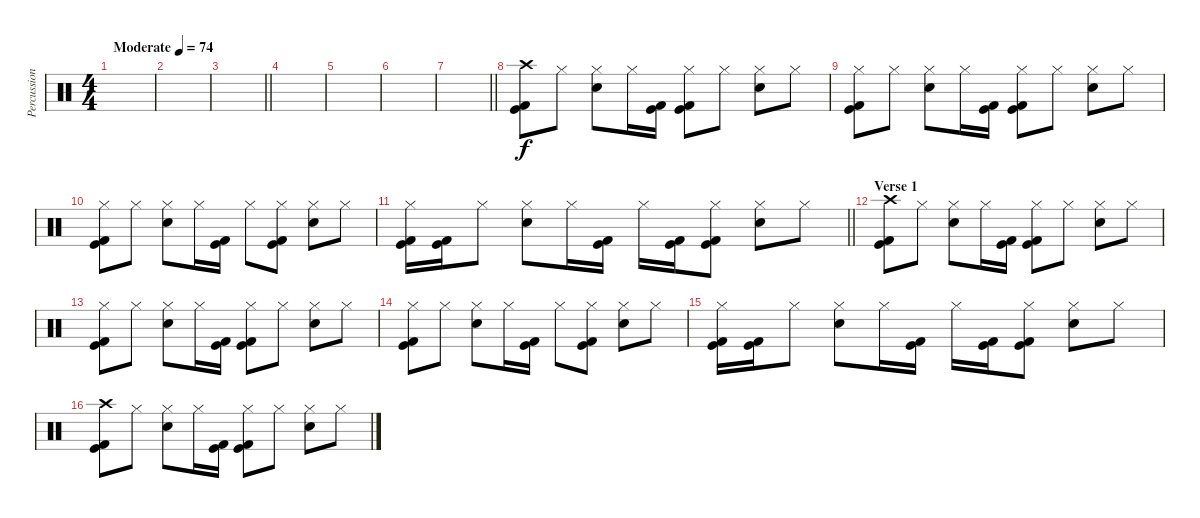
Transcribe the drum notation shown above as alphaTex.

\track ("Percussion" "Percussion") {instrument percussion}
\staff {score}
\articulation defaults
\ts (4 4)
\tempo (74 "Moderate")
\clef neutral
\ks c
|
|
\barLineRight lightlight
|
\section ("" "")
|
|
|
\barLineRight lightlight
|
\section ("" "")
("Crash high (hit)" "Kick (hit)" "Kick (hit) 2").8 "Hi-Hat (closed)".8 ("Hi-Hat (closed)" "Electric Snare (hit)").8 "Hi-Hat (closed)".16 ("Kick (hit)" "Kick (hit) 2").16 ("Hi-Hat (closed)" "Kick (hit)" "Kick (hit) 2").8 "Hi-Hat (closed)".8 ("Hi-Hat (closed)" "Electric Snare (hit)").8 "Hi-Hat (closed)".8 |
("Hi-Hat (closed)" "Kick (hit)" "Kick (hit) 2").8 "Hi-Hat (closed)".8 ("Hi-Hat (closed)" "Electric Snare (hit)").8 "Hi-Hat (closed)".16 ("Kick (hit)" "Kick (hit) 2").16 ("Hi-Hat (closed)" "Kick (hit)" "Kick (hit) 2").8 "Hi-Hat (closed)".8 ("Hi-Hat (closed)" "Electric Snare (hit)").8 "Hi-Hat (closed)".8 |
("Hi-Hat (closed)" "Kick (hit)" "Kick (hit) 2").8 "Hi-Hat (closed)".8 ("Hi-Hat (closed)" "Electric Snare (hit)").8 "Hi-Hat (closed)".16 ("Kick (hit)" "Kick (hit) 2").16 "Hi-Hat (closed)".8 ("Hi-Hat (closed)" "Kick (hit)" "Kick (hit) 2").8 ("Hi-Hat (closed)" "Electric Snare (hit)").8 "Hi-Hat (closed)".8 |
\barLineRight lightlight
("Hi-Hat (closed)" "Kick (hit)" "Kick (hit) 2").16 ("Kick (hit)" "Kick (hit) 2").16 "Hi-Hat (closed)".8 ("Hi-Hat (closed)" "Electric Snare (hit)").8 "Hi-Hat (closed)".16 ("Kick (hit)" "Kick (hit) 2").16 "Hi-Hat (closed)".16 ("Kick (hit)" "Kick (hit) 2").16 ("Hi-Hat (closed)" "Kick (hit)" "Kick (hit) 2").8 ("Hi-Hat (closed)" "Electric Snare (hit)").8 "Hi-Hat (closed)".8 |
\section ("" "Verse 1")
("Crash high (hit)" "Kick (hit)" "Kick (hit) 2").8 "Hi-Hat (closed)".8 ("Hi-Hat (closed)" "Electric Snare (hit)").8 "Hi-Hat (closed)".16 ("Kick (hit)" "Kick (hit) 2").16 ("Hi-Hat (closed)" "Kick (hit)" "Kick (hit) 2").8 "Hi-Hat (closed)".8 ("Hi-Hat (closed)" "Electric Snare (hit)").8 "Hi-Hat (closed)".8 |
("Hi-Hat (closed)" "Kick (hit)" "Kick (hit) 2").8 "Hi-Hat (closed)".8 ("Hi-Hat (closed)" "Electric Snare (hit)").8 "Hi-Hat (closed)".16 ("Kick (hit)" "Kick (hit) 2").16 ("Hi-Hat (closed)" "Kick (hit)" "Kick (hit) 2").8 "Hi-Hat (closed)".8 ("Hi-Hat (closed)" "Electric Snare (hit)").8 "Hi-Hat (closed)".8 |
("Hi-Hat (closed)" "Kick (hit)" "Kick (hit) 2").8 "Hi-Hat (closed)".8 ("Hi-Hat (closed)" "Electric Snare (hit)").8 "Hi-Hat (closed)".16 ("Kick (hit)" "Kick (hit) 2").16 "Hi-Hat (closed)".8 ("Hi-Hat (closed)" "Kick (hit)" "Kick (hit) 2").8 ("Hi-Hat (closed)" "Electric Snare (hit)").8 "Hi-Hat (closed)".8 |
("Hi-Hat (closed)" "Kick (hit)" "Kick (hit) 2").16 ("Kick (hit)" "Kick (hit) 2").16 "Hi-Hat (closed)".8 ("Hi-Hat (closed)" "Electric Snare (hit)").8 "Hi-Hat (closed)".16 ("Kick (hit)" "Kick (hit) 2").16 "Hi-Hat (closed)".16 ("Kick (hit)" "Kick (hit) 2").16 ("Hi-Hat (closed)" "Kick (hit)" "Kick (hit) 2").8 ("Hi-Hat (closed)" "Electric Snare (hit)").8 "Hi-Hat (closed)".8 |
("Crash high (hit)" "Kick (hit)" "Kick (hit) 2").8 "Hi-Hat (closed)".8 ("Hi-Hat (closed)" "Electric Snare (hit)").8 "Hi-Hat (closed)".16 ("Kick (hit)" "Kick (hit) 2").16 ("Hi-Hat (closed)" "Kick (hit)" "Kick (hit) 2").8 "Hi-Hat (closed)".8 ("Hi-Hat (closed)" "Electric Snare (hit)").8 "Hi-Hat (closed)".8
